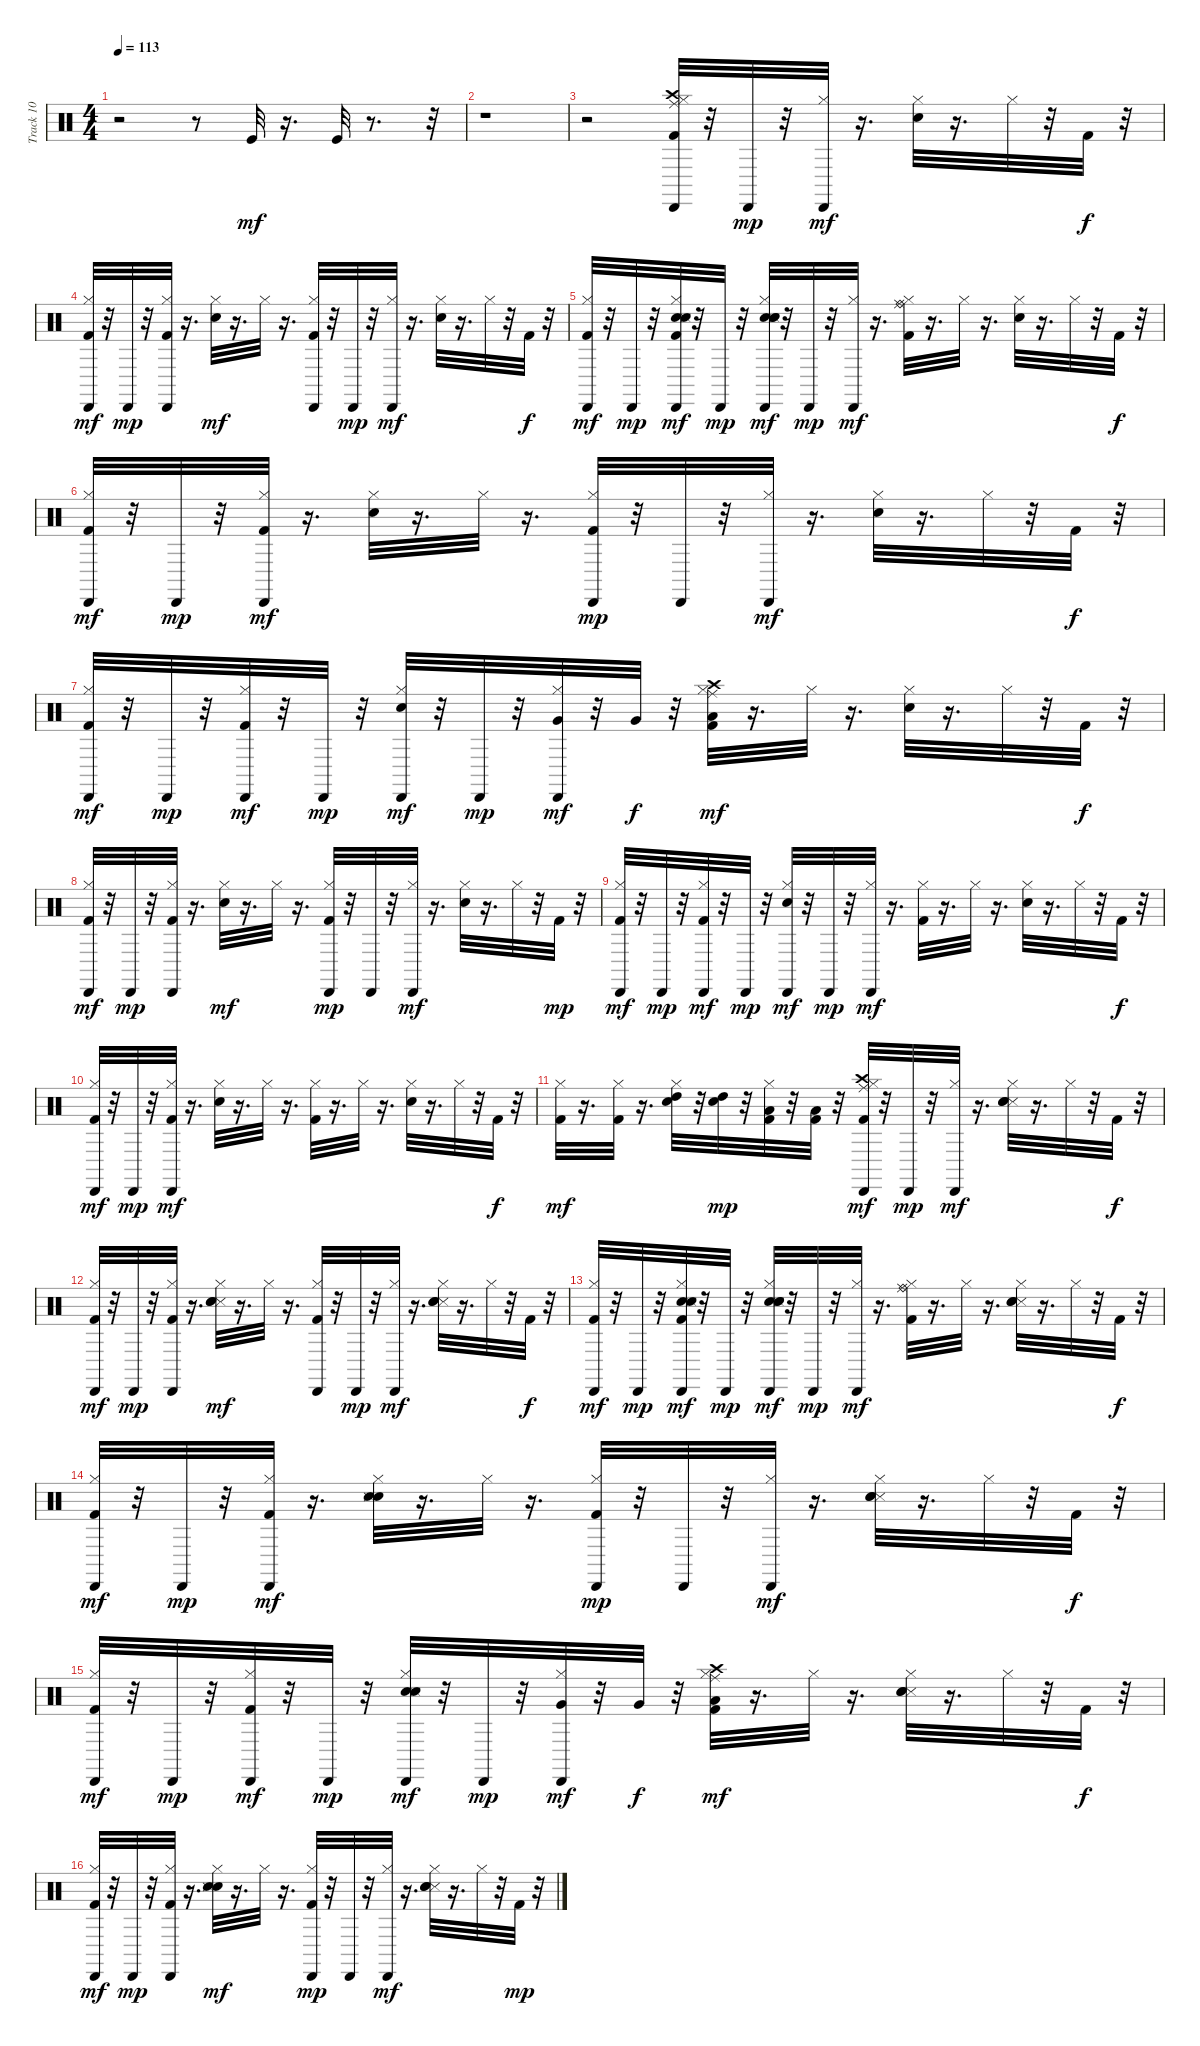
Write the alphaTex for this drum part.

\track ("Track 10" "Track 10") {instrument percussion}
\staff {score}
\articulation defaults
\ts (4 4)
\tempo 113
\clef neutral
\ks c
r.2{dy mf} r.8 "Kick (hit)".32 r.16{d} "Kick (hit)".32 r.8{d} r.32 |
r.1 |
r.2 ("Cabasa (hit)" "Crash high (hit)" "Ride (middle)" "Hi-Hat (closed)" "Kick (hit) 2").32 r.32 "Cabasa (hit)".32{dy mp} r.32 ("Cabasa (hit)" "Hi-Hat (closed)").32{dy mf} r.16{d} ("Hi-Hat (closed)" "Snare (hit) 2").32 r.16{d} "Hi-Hat (closed)".32 r.32 "Kick (hit) 2".32{dy f} r.32 |
("Cabasa (hit)" "Hi-Hat (closed)" "Kick (hit) 2").32{dy mf} r.32 "Cabasa (hit)".32{dy mp} r.32 ("Hi-Hat (closed)" "Kick (hit) 2" "Cabasa (hit)").32 r.16{d} ("Hi-Hat (closed)" "Snare (hit) 2").32{dy mf} r.16{d} "Hi-Hat (closed)".32 r.16{d} ("Cabasa (hit)" "Hi-Hat (closed)" "Kick (hit) 2").32 r.32 "Cabasa (hit)".32{dy mp} r.32 ("Cabasa (hit)" "Hi-Hat (closed)").32{dy mf} r.16{d} ("Hi-Hat (closed)" "Snare (hit) 2").32 r.16{d} "Hi-Hat (closed)".32 r.32 "Kick (hit) 2".32{dy f} r.32 |
("Cabasa (hit)" "Hi-Hat (closed)" "Kick (hit) 2").32{dy mf} r.32 "Cabasa (hit)".32{dy mp} r.32 ("Cabasa (hit)" "Hand Clap (hit)" "Snare (side stick) 3" "Hi-Hat (closed)" "Hand Clap (hit)" "Kick (hit) 2").32{dy mf} r.32 "Cabasa (hit)".32{dy mp} r.32 ("Cabasa (hit)" "Hand Clap (hit)" "Snare (side stick) 3" "Hi-Hat (closed)" "Hand Clap (hit)" "Snare (hit) 2").32{dy mf} r.32 "Cabasa (hit)".32{dy mp} r.32 ("Cabasa (hit)" "Hi-Hat (closed)").32{dy mf} r.16{d} ("Ride (bell)" "Ride (middle)" "Hi-Hat (closed)" "Kick (hit) 2").32 r.16{d} "Hi-Hat (closed)".32 r.16{d} ("Hi-Hat (closed)" "Snare (hit) 2").32 r.16{d} "Hi-Hat (closed)".32 r.32 "Kick (hit) 2".32{dy f} r.32 |
("Cabasa (hit)" "Hi-Hat (closed)" "Kick (hit) 2").32{dy mf} r.32 "Cabasa (hit)".32{dy mp} r.32 ("Cabasa (hit)" "Hi-Hat (closed)" "Kick (hit) 2").32{dy mf} r.16{d} ("Hi-Hat (closed)" "Snare (hit) 2").32 r.16{d} "Hi-Hat (closed)".32 r.16{d} ("Hi-Hat (closed)" "Kick (hit) 2" "Cabasa (hit)").32{dy mp} r.32 "Cabasa (hit)".32 r.32 ("Cabasa (hit)" "Hi-Hat (closed)").32{dy mf} r.16{d} ("Snare (hit) 2" "Hi-Hat (closed)").32 r.16{d} "Hi-Hat (closed)".32 r.32 "Kick (hit) 2".32{dy f} r.32 |
("Cabasa (hit)" "Hi-Hat (closed)" "Kick (hit) 2").32{dy mf} r.32 "Cabasa (hit)".32{dy mp} r.32 ("Cabasa (hit)" "Kick (hit) 2" "Hi-Hat (closed)").32{dy mf} r.32 "Cabasa (hit)".32{dy mp} r.32 ("Cabasa (hit)" "Snare (hit) 2" "Hi-Hat (closed)").32{dy mf} r.32 "Cabasa (hit)".32{dy mp} r.32 ("Cabasa (hit)" "Very Low Tom (hit)" "Hi-Hat (closed)").32{dy mf} r.32 "Very Low Tom (hit)".32{dy f} r.32 ("Ride (middle)" "Low Floor Tom (hit)" "Hi-Hat (closed)" "Kick (hit) 2" "Crash high (hit)").32{dy mf} r.16{d} "Hi-Hat (closed)".32 r.16{d} ("Hi-Hat (closed)" "Snare (hit) 2").32 r.16{d} "Hi-Hat (closed)".32 r.32 "Kick (hit) 2".32{dy f} r.32 |
("Cabasa (hit)" "Hi-Hat (closed)" "Kick (hit) 2").32{dy mf} r.32 "Cabasa (hit)".32{dy mp} r.32 ("Hi-Hat (closed)" "Kick (hit) 2" "Cabasa (hit)").32 r.16{d} ("Hi-Hat (closed)" "Snare (hit) 2").32{dy mf} r.16{d} "Hi-Hat (closed)".32 r.16{d} ("Hi-Hat (closed)" "Kick (hit) 2" "Cabasa (hit)").32{dy mp} r.32 "Cabasa (hit)".32 r.32 ("Cabasa (hit)" "Hi-Hat (closed)").32{dy mf} r.16{d} ("Hi-Hat (closed)" "Snare (hit) 2").32 r.16{d} "Hi-Hat (closed)".32 r.32 "Kick (hit) 2".32{dy mp} r.32 |
("Cabasa (hit)" "Hi-Hat (closed)" "Kick (hit) 2").32{dy mf} r.32 "Cabasa (hit)".32{dy mp} r.32 ("Cabasa (hit)" "Kick (hit) 2" "Hi-Hat (closed)").32{dy mf} r.32 "Cabasa (hit)".32{dy mp} r.32 ("Cabasa (hit)" "Hi-Hat (closed)" "Snare (hit) 2").32{dy mf} r.32 "Cabasa (hit)".32{dy mp} r.32 ("Cabasa (hit)" "Hi-Hat (closed)").32{dy mf} r.16{d} ("Kick (hit) 2" "Hi-Hat (closed)").32 r.16{d} "Hi-Hat (closed)".32 r.16{d} ("Hi-Hat (closed)" "Snare (hit) 2").32 r.16{d} "Hi-Hat (closed)".32 r.32 "Kick (hit) 2".32{dy f} r.32 |
("Cabasa (hit)" "Hi-Hat (closed)" "Kick (hit) 2").32{dy mf} r.32 "Cabasa (hit)".32{dy mp} r.32 ("Cabasa (hit)" "Kick (hit) 2" "Hi-Hat (closed)").32{dy mf} r.16{d} ("Snare (hit) 2" "Hi-Hat (closed)").32 r.16{d} "Hi-Hat (closed)".32 r.16{d} ("Hi-Hat (closed)" "Kick (hit) 2").32 r.16{d} "Hi-Hat (closed)".32 r.16{d} ("Hi-Hat (closed)" "Snare (hit) 2").32 r.16{d} "Hi-Hat (closed)".32 r.32 "Kick (hit) 2".32{dy f} r.32 |
("Hi-Hat (closed)" "Kick (hit) 2").32{dy mf} r.16{d} ("Hi-Hat (closed)" "Kick (hit) 2").32 r.16{d} ("High Tom (hit)" "Hi-Hat (closed)" "Snare (hit) 2").32 r.32 ("Snare (hit) 2" "High Tom (hit)").32{dy mp} r.32 ("Kick (hit) 2" "Hi-Hat (closed)" "Low Tom (hit)").32 r.32 ("Low Tom (hit)" "Kick (hit) 2").32 r.32 ("Cabasa (hit)" "Crash high (hit)" "Ride (middle)" "Hi-Hat (closed)" "Kick (hit) 2").32{dy mf} r.32 "Cabasa (hit)".32{dy mp} r.32 ("Cabasa (hit)" "Hi-Hat (closed)").32{dy mf} r.16{d} ("Snare (side stick) 3" "Hand Clap (hit)" "Hi-Hat (closed)" "Snare (hit) 2").32 r.16{d} "Hi-Hat (closed)".32 r.32 "Kick (hit) 2".32{dy f} r.32 |
("Cabasa (hit)" "Hi-Hat (closed)" "Kick (hit) 2").32{dy mf} r.32 "Cabasa (hit)".32{dy mp} r.32 ("Hi-Hat (closed)" "Kick (hit) 2" "Cabasa (hit)").32 r.16{d} ("Snare (side stick) 3" "Hand Clap (hit)" "Hi-Hat (closed)" "Snare (hit) 2").32{dy mf} r.16{d} "Hi-Hat (closed)".32 r.16{d} ("Cabasa (hit)" "Hi-Hat (closed)" "Kick (hit) 2").32 r.32 "Cabasa (hit)".32{dy mp} r.32 ("Cabasa (hit)" "Hi-Hat (closed)").32{dy mf} r.16{d} ("Snare (side stick) 3" "Hand Clap (hit)" "Hi-Hat (closed)" "Snare (hit) 2").32 r.16{d} "Hi-Hat (closed)".32 r.32 "Kick (hit) 2".32{dy f} r.32 |
("Cabasa (hit)" "Hi-Hat (closed)" "Kick (hit) 2").32{dy mf} r.32 "Cabasa (hit)".32{dy mp} r.32 ("Cabasa (hit)" "Hand Clap (hit)" "Snare (side stick) 3" "Hi-Hat (closed)" "Hand Clap (hit)" "Kick (hit) 2").32{dy mf} r.32 "Cabasa (hit)".32{dy mp} r.32 ("Cabasa (hit)" "Hand Clap (hit)" "Snare (side stick) 3" "Hi-Hat (closed)" "Hand Clap (hit)" "Snare (hit) 2").32{dy mf} r.32 "Cabasa (hit)".32{dy mp} r.32 ("Cabasa (hit)" "Hi-Hat (closed)").32{dy mf} r.16{d} ("Ride (bell)" "Ride (middle)" "Hi-Hat (closed)" "Kick (hit) 2").32 r.16{d} "Hi-Hat (closed)".32 r.16{d} ("Snare (side stick) 3" "Hand Clap (hit)" "Hi-Hat (closed)" "Snare (hit) 2").32 r.16{d} "Hi-Hat (closed)".32 r.32 "Kick (hit) 2".32{dy f} r.32 |
("Cabasa (hit)" "Hi-Hat (closed)" "Kick (hit) 2").32{dy mf} r.32 "Cabasa (hit)".32{dy mp} r.32 ("Cabasa (hit)" "Hi-Hat (closed)" "Kick (hit) 2").32{dy mf} r.16{d} ("Hand Clap (hit)" "Snare (side stick) 3" "Hi-Hat (closed)" "Snare (hit) 2").32 r.16{d} "Hi-Hat (closed)".32 r.16{d} ("Hi-Hat (closed)" "Kick (hit) 2" "Cabasa (hit)").32{dy mp} r.32 "Cabasa (hit)".32 r.32 ("Cabasa (hit)" "Hi-Hat (closed)").32{dy mf} r.16{d} ("Snare (side stick) 3" "Hand Clap (hit)" "Snare (hit) 2" "Hi-Hat (closed)").32 r.16{d} "Hi-Hat (closed)".32 r.32 "Kick (hit) 2".32{dy f} r.32 |
("Cabasa (hit)" "Hi-Hat (closed)" "Kick (hit) 2").32{dy mf} r.32 "Cabasa (hit)".32{dy mp} r.32 ("Cabasa (hit)" "Kick (hit) 2" "Hi-Hat (closed)").32{dy mf} r.32 "Cabasa (hit)".32{dy mp} r.32 ("Hand Clap (hit)" "Snare (side stick) 3" "Cabasa (hit)" "Snare (hit) 2" "Hi-Hat (closed)").32{dy mf} r.32 "Cabasa (hit)".32{dy mp} r.32 ("Cabasa (hit)" "Very Low Tom (hit)" "Hi-Hat (closed)").32{dy mf} r.32 "Very Low Tom (hit)".32{dy f} r.32 ("Ride (middle)" "Low Floor Tom (hit)" "Hi-Hat (closed)" "Kick (hit) 2" "Crash high (hit)").32{dy mf} r.16{d} "Hi-Hat (closed)".32 r.16{d} ("Snare (side stick) 3" "Hi-Hat (closed)" "Snare (hit) 2" "Hand Clap (hit)").32 r.16{d} "Hi-Hat (closed)".32 r.32 "Kick (hit) 2".32{dy f} r.32 |
("Cabasa (hit)" "Hi-Hat (closed)" "Kick (hit) 2").32{dy mf} r.32 "Cabasa (hit)".32{dy mp} r.32 ("Hi-Hat (closed)" "Kick (hit) 2" "Cabasa (hit)").32 r.16{d} ("Hand Clap (hit)" "Hi-Hat (closed)" "Snare (hit) 2" "Snare (side stick) 3").32{dy mf} r.16{d} "Hi-Hat (closed)".32 r.16{d} ("Hi-Hat (closed)" "Kick (hit) 2" "Cabasa (hit)").32{dy mp} r.32 "Cabasa (hit)".32 r.32 ("Cabasa (hit)" "Hi-Hat (closed)").32{dy mf} r.16{d} ("Snare (side stick) 3" "Hand Clap (hit)" "Hi-Hat (closed)" "Snare (hit) 2").32 r.16{d} "Hi-Hat (closed)".32 r.32 "Kick (hit) 2".32{dy mp} r.32
